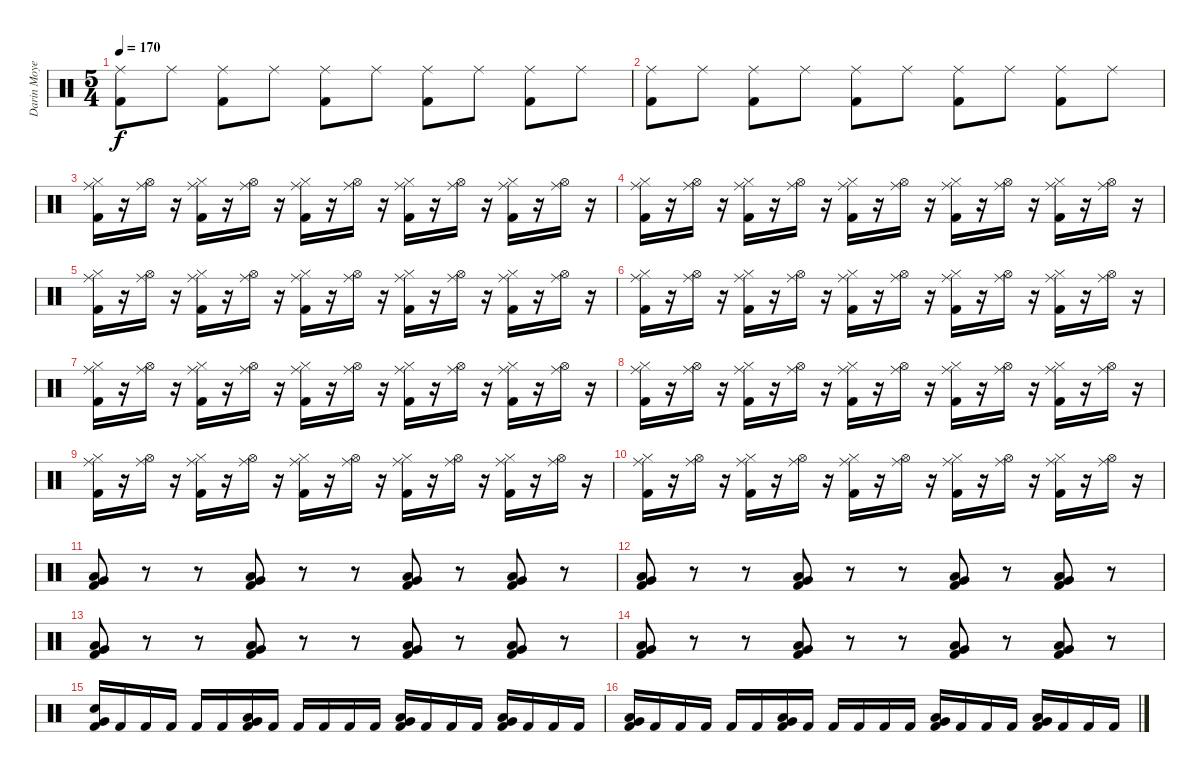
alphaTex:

\track ("Darin Moyen" "Darin Moye") {instrument percussion}
\staff {score}
\articulation defaults
\ts (5 4)
\tempo 170
\clef neutral
\ks c
("Ride (middle)" "Kick (hit) 2").8{dy f} "Ride (middle)".8 ("Ride (middle)" "Kick (hit) 2").8 "Ride (middle)".8 ("Ride (middle)" "Kick (hit) 2").8 "Ride (middle)".8 ("Ride (middle)" "Kick (hit) 2").8 "Ride (middle)".8 ("Ride (middle)" "Kick (hit) 2").8 "Ride (middle)".8 |
("Ride (middle)" "Kick (hit) 2").8 "Ride (middle)".8 ("Ride (middle)" "Kick (hit) 2").8 "Ride (middle)".8 ("Ride (middle)" "Kick (hit) 2").8 "Ride (middle)".8 ("Ride (middle)" "Kick (hit) 2").8 "Ride (middle)".8 ("Ride (middle)" "Kick (hit) 2").8 "Ride (middle)".8 |
("Ride (middle)" "Hi-Hat (closed)" "Kick (hit) 2").16 r.16 ("Ride (middle)" "Hi-Hat (open)").16 r.16 ("Ride (middle)" "Hi-Hat (closed)" "Kick (hit) 2").16 r.16 ("Ride (middle)" "Hi-Hat (open)").16 r.16 ("Ride (middle)" "Hi-Hat (closed)" "Kick (hit) 2").16 r.16 ("Ride (middle)" "Hi-Hat (open)").16 r.16 ("Ride (middle)" "Hi-Hat (closed)" "Kick (hit) 2").16 r.16 ("Ride (middle)" "Hi-Hat (open)").16 r.16 ("Ride (middle)" "Hi-Hat (closed)" "Kick (hit) 2").16 r.16 ("Ride (middle)" "Hi-Hat (open)").16 r.16 |
("Ride (middle)" "Hi-Hat (closed)" "Kick (hit) 2").16 r.16 ("Ride (middle)" "Hi-Hat (open)").16 r.16 ("Ride (middle)" "Hi-Hat (closed)" "Kick (hit) 2").16 r.16 ("Ride (middle)" "Hi-Hat (open)").16 r.16 ("Ride (middle)" "Hi-Hat (closed)" "Kick (hit) 2").16 r.16 ("Ride (middle)" "Hi-Hat (open)").16 r.16 ("Ride (middle)" "Hi-Hat (closed)" "Kick (hit) 2").16 r.16 ("Ride (middle)" "Hi-Hat (open)").16 r.16 ("Ride (middle)" "Hi-Hat (closed)" "Kick (hit) 2").16 r.16 ("Ride (middle)" "Hi-Hat (open)").16 r.16 |
("Ride (middle)" "Hi-Hat (closed)" "Kick (hit) 2").16 r.16 ("Ride (middle)" "Hi-Hat (open)").16 r.16 ("Ride (middle)" "Hi-Hat (closed)" "Kick (hit) 2").16 r.16 ("Ride (middle)" "Hi-Hat (open)").16 r.16 ("Ride (middle)" "Hi-Hat (closed)" "Kick (hit) 2").16 r.16 ("Ride (middle)" "Hi-Hat (open)").16 r.16 ("Ride (middle)" "Hi-Hat (closed)" "Kick (hit) 2").16 r.16 ("Ride (middle)" "Hi-Hat (open)").16 r.16 ("Ride (middle)" "Hi-Hat (closed)" "Kick (hit) 2").16 r.16 ("Ride (middle)" "Hi-Hat (open)").16 r.16 |
("Ride (middle)" "Hi-Hat (closed)" "Kick (hit) 2").16 r.16 ("Ride (middle)" "Hi-Hat (open)").16 r.16 ("Ride (middle)" "Hi-Hat (closed)" "Kick (hit) 2").16 r.16 ("Ride (middle)" "Hi-Hat (open)").16 r.16 ("Ride (middle)" "Hi-Hat (closed)" "Kick (hit) 2").16 r.16 ("Ride (middle)" "Hi-Hat (open)").16 r.16 ("Ride (middle)" "Hi-Hat (closed)" "Kick (hit) 2").16 r.16 ("Ride (middle)" "Hi-Hat (open)").16 r.16 ("Ride (middle)" "Hi-Hat (closed)" "Kick (hit) 2").16 r.16 ("Ride (middle)" "Hi-Hat (open)").16 r.16 |
("Ride (middle)" "Hi-Hat (closed)" "Kick (hit) 2").16 r.16 ("Ride (middle)" "Hi-Hat (open)").16 r.16 ("Ride (middle)" "Hi-Hat (closed)" "Kick (hit) 2").16 r.16 ("Ride (middle)" "Hi-Hat (open)").16 r.16 ("Ride (middle)" "Hi-Hat (closed)" "Kick (hit) 2").16 r.16 ("Ride (middle)" "Hi-Hat (open)").16 r.16 ("Ride (middle)" "Hi-Hat (closed)" "Kick (hit) 2").16 r.16 ("Ride (middle)" "Hi-Hat (open)").16 r.16 ("Ride (middle)" "Hi-Hat (closed)" "Kick (hit) 2").16 r.16 ("Ride (middle)" "Hi-Hat (open)").16 r.16 |
("Ride (middle)" "Hi-Hat (closed)" "Kick (hit) 2").16 r.16 ("Ride (middle)" "Hi-Hat (open)").16 r.16 ("Ride (middle)" "Hi-Hat (closed)" "Kick (hit) 2").16 r.16 ("Ride (middle)" "Hi-Hat (open)").16 r.16 ("Ride (middle)" "Hi-Hat (closed)" "Kick (hit) 2").16 r.16 ("Ride (middle)" "Hi-Hat (open)").16 r.16 ("Ride (middle)" "Hi-Hat (closed)" "Kick (hit) 2").16 r.16 ("Ride (middle)" "Hi-Hat (open)").16 r.16 ("Ride (middle)" "Hi-Hat (closed)" "Kick (hit) 2").16 r.16 ("Ride (middle)" "Hi-Hat (open)").16 r.16 |
("Ride (middle)" "Hi-Hat (closed)" "Kick (hit) 2").16 r.16 ("Ride (middle)" "Hi-Hat (open)").16 r.16 ("Ride (middle)" "Hi-Hat (closed)" "Kick (hit) 2").16 r.16 ("Ride (middle)" "Hi-Hat (open)").16 r.16 ("Ride (middle)" "Hi-Hat (closed)" "Kick (hit) 2").16 r.16 ("Ride (middle)" "Hi-Hat (open)").16 r.16 ("Ride (middle)" "Hi-Hat (closed)" "Kick (hit) 2").16 r.16 ("Ride (middle)" "Hi-Hat (open)").16 r.16 ("Ride (middle)" "Hi-Hat (closed)" "Kick (hit) 2").16 r.16 ("Ride (middle)" "Hi-Hat (open)").16 r.16 |
("Ride (middle)" "Hi-Hat (closed)" "Kick (hit) 2").16 r.16 ("Ride (middle)" "Hi-Hat (open)").16 r.16 ("Ride (middle)" "Hi-Hat (closed)" "Kick (hit) 2").16 r.16 ("Ride (middle)" "Hi-Hat (open)").16 r.16 ("Ride (middle)" "Hi-Hat (closed)" "Kick (hit) 2").16 r.16 ("Ride (middle)" "Hi-Hat (open)").16 r.16 ("Ride (middle)" "Hi-Hat (closed)" "Kick (hit) 2").16 r.16 ("Ride (middle)" "Hi-Hat (open)").16 r.16 ("Ride (middle)" "Hi-Hat (closed)" "Kick (hit) 2").16 r.16 ("Ride (middle)" "Hi-Hat (open)").16 r.16 |
("Very Low Tom (hit)" "Low Tom (hit)" "Kick (hit) 2").8 r.8 r.8 ("Very Low Tom (hit)" "Low Tom (hit)" "Kick (hit) 2").8 r.8 r.8 ("Very Low Tom (hit)" "Low Tom (hit)" "Kick (hit) 2").8 r.8 ("Very Low Tom (hit)" "Low Tom (hit)" "Kick (hit) 2").8 r.8 |
("Very Low Tom (hit)" "Low Tom (hit)" "Kick (hit) 2").8 r.8 r.8 ("Very Low Tom (hit)" "Low Tom (hit)" "Kick (hit) 2").8 r.8 r.8 ("Very Low Tom (hit)" "Low Tom (hit)" "Kick (hit) 2").8 r.8 ("Very Low Tom (hit)" "Low Tom (hit)" "Kick (hit) 2").8 r.8 |
("Very Low Tom (hit)" "Low Tom (hit)" "Kick (hit) 2").8 r.8 r.8 ("Very Low Tom (hit)" "Low Tom (hit)" "Kick (hit) 2").8 r.8 r.8 ("Very Low Tom (hit)" "Low Tom (hit)" "Kick (hit) 2").8 r.8 ("Very Low Tom (hit)" "Low Tom (hit)" "Kick (hit) 2").8 r.8 |
("Very Low Tom (hit)" "Low Tom (hit)" "Kick (hit) 2").8 r.8 r.8 ("Very Low Tom (hit)" "Low Tom (hit)" "Kick (hit) 2").8 r.8 r.8 ("Very Low Tom (hit)" "Low Tom (hit)" "Kick (hit) 2").8 r.8 ("Very Low Tom (hit)" "Low Tom (hit)" "Kick (hit) 2").8 r.8 |
("Very Low Tom (hit)" "Electric Snare (hit)" "Kick (hit) 2").16 "Kick (hit) 2".16 "Kick (hit) 2".16 "Kick (hit) 2".16 "Kick (hit) 2".16 "Kick (hit) 2".16 ("Low Tom (hit)" "Very Low Tom (hit)" "Kick (hit) 2").16 "Kick (hit) 2".16 "Kick (hit) 2".16 "Kick (hit) 2".16 "Kick (hit) 2".16 "Kick (hit) 2".16 ("Very Low Tom (hit)" "Low Tom (hit)" "Kick (hit) 2").16 "Kick (hit) 2".16 "Kick (hit) 2".16 "Kick (hit) 2".16 ("Very Low Tom (hit)" "Low Tom (hit)" "Kick (hit) 2").16 "Kick (hit) 2".16 "Kick (hit) 2".16 "Kick (hit) 2".16 |
("Very Low Tom (hit)" "Low Tom (hit)" "Kick (hit) 2").16 "Kick (hit) 2".16 "Kick (hit) 2".16 "Kick (hit) 2".16 "Kick (hit) 2".16 "Kick (hit) 2".16 ("Low Tom (hit)" "Very Low Tom (hit)" "Kick (hit) 2").16 "Kick (hit) 2".16 "Kick (hit) 2".16 "Kick (hit) 2".16 "Kick (hit) 2".16 "Kick (hit) 2".16 ("Very Low Tom (hit)" "Low Tom (hit)" "Kick (hit) 2").16 "Kick (hit) 2".16 "Kick (hit) 2".16 "Kick (hit) 2".16 ("Very Low Tom (hit)" "Low Tom (hit)" "Kick (hit) 2").16 "Kick (hit) 2".16 "Kick (hit) 2".16 "Kick (hit) 2".16
